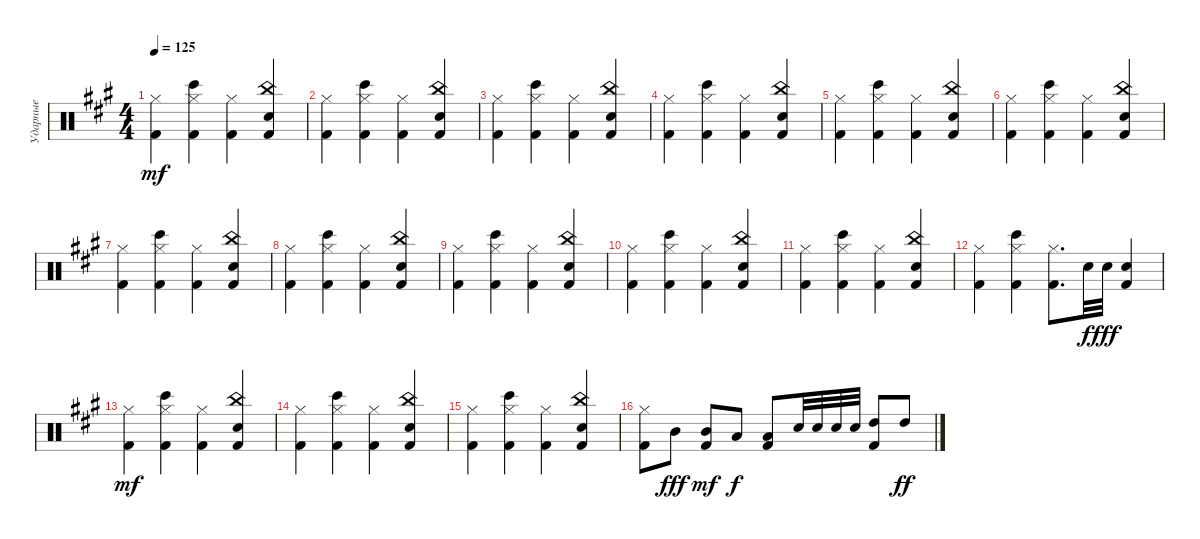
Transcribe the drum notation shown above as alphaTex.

\track ("Ударные" "Ударные") {instrument percussion}
\staff {score}
\articulation defaults
\ts (4 4)
\tempo 125
\clef neutral
\ks f#minor
("Hi-Hat (closed)" "Kick (hit) 2").4{dy mf} ("Hi-Hat (closed)" "Bongo High (hit)" "Kick (hit) 2").4 ("Hi-Hat (closed)" "Kick (hit) 2").4 ("China (hit)" "Electric Snare (hit)" "Kick (hit) 2").4 |
("Hi-Hat (closed)" "Kick (hit) 2").4 ("Hi-Hat (closed)" "Bongo High (hit)" "Kick (hit) 2").4 ("Hi-Hat (closed)" "Kick (hit) 2").4 ("China (hit)" "Electric Snare (hit)" "Kick (hit) 2").4 |
("Hi-Hat (closed)" "Kick (hit) 2").4 ("Hi-Hat (closed)" "Bongo High (hit)" "Kick (hit) 2").4 ("Hi-Hat (closed)" "Kick (hit) 2").4 ("China (hit)" "Electric Snare (hit)" "Kick (hit) 2").4 |
("Hi-Hat (closed)" "Kick (hit) 2").4 ("Hi-Hat (closed)" "Bongo High (hit)" "Kick (hit) 2").4 ("Hi-Hat (closed)" "Kick (hit) 2").4 ("China (hit)" "Electric Snare (hit)" "Kick (hit) 2").4 |
("Hi-Hat (closed)" "Kick (hit) 2").4 ("Hi-Hat (closed)" "Bongo High (hit)" "Kick (hit) 2").4 ("Hi-Hat (closed)" "Kick (hit) 2").4 ("China (hit)" "Electric Snare (hit)" "Kick (hit) 2").4 |
("Hi-Hat (closed)" "Kick (hit) 2").4 ("Hi-Hat (closed)" "Bongo High (hit)" "Kick (hit) 2").4 ("Hi-Hat (closed)" "Kick (hit) 2").4 ("China (hit)" "Electric Snare (hit)" "Kick (hit) 2").4 |
("Hi-Hat (closed)" "Kick (hit) 2").4 ("Hi-Hat (closed)" "Bongo High (hit)" "Kick (hit) 2").4 ("Hi-Hat (closed)" "Kick (hit) 2").4 ("China (hit)" "Electric Snare (hit)" "Kick (hit) 2").4 |
("Hi-Hat (closed)" "Kick (hit) 2").4 ("Hi-Hat (closed)" "Bongo High (hit)" "Kick (hit) 2").4 ("Hi-Hat (closed)" "Kick (hit) 2").4 ("China (hit)" "Electric Snare (hit)" "Kick (hit) 2").4 |
("Hi-Hat (closed)" "Kick (hit) 2").4 ("Hi-Hat (closed)" "Bongo High (hit)" "Kick (hit) 2").4 ("Hi-Hat (closed)" "Kick (hit) 2").4 ("China (hit)" "Electric Snare (hit)" "Kick (hit) 2").4 |
("Hi-Hat (closed)" "Kick (hit) 2").4 ("Hi-Hat (closed)" "Bongo High (hit)" "Kick (hit) 2").4 ("Hi-Hat (closed)" "Kick (hit) 2").4 ("China (hit)" "Electric Snare (hit)" "Kick (hit) 2").4 |
("Hi-Hat (closed)" "Kick (hit) 2").4 ("Hi-Hat (closed)" "Bongo High (hit)" "Kick (hit) 2").4 ("Hi-Hat (closed)" "Kick (hit) 2").4 ("China (hit)" "Electric Snare (hit)" "Kick (hit) 2").4 |
("Hi-Hat (closed)" "Kick (hit) 2").4 ("Hi-Hat (closed)" "Bongo High (hit)" "Kick (hit) 2").4 ("Hi-Hat (closed)" "Kick (hit) 2").8{d} "Snare (hit) 2".32{dy f} "Snare (hit) 2".32{dy fff} ("Snare (hit) 2" "Kick (hit) 2").4 |
("Hi-Hat (closed)" "Kick (hit) 2").4{dy mf} ("Hi-Hat (closed)" "Bongo High (hit)" "Kick (hit) 2").4 ("Hi-Hat (closed)" "Kick (hit) 2").4 ("China (hit)" "Electric Snare (hit)" "Kick (hit) 2").4 |
("Hi-Hat (closed)" "Kick (hit) 2").4 ("Hi-Hat (closed)" "Bongo High (hit)" "Kick (hit) 2").4 ("Hi-Hat (closed)" "Kick (hit) 2").4 ("China (hit)" "Electric Snare (hit)" "Kick (hit) 2").4 |
("Hi-Hat (closed)" "Kick (hit) 2").4 ("Hi-Hat (closed)" "Bongo High (hit)" "Kick (hit) 2").4 ("Hi-Hat (closed)" "Kick (hit) 2").4 ("China (hit)" "Electric Snare (hit)" "Kick (hit) 2").4 |
("Hi-Hat (closed)" "Kick (hit) 2").8 "Mid Tom (hit)".8{dy fff} ("Mid Tom (hit)" "Kick (hit) 2").8{dy mf} "Low Tom (hit)".8{dy f} ("Low Tom (hit)" "Kick (hit) 2").8 "Snare (hit) 2".32 "Snare (hit) 2".32 "Snare (hit) 2".32 "Snare (hit) 2".32 ("High Tom (hit)" "Kick (hit) 2").8 "High Tom (hit)".8{dy ff}
